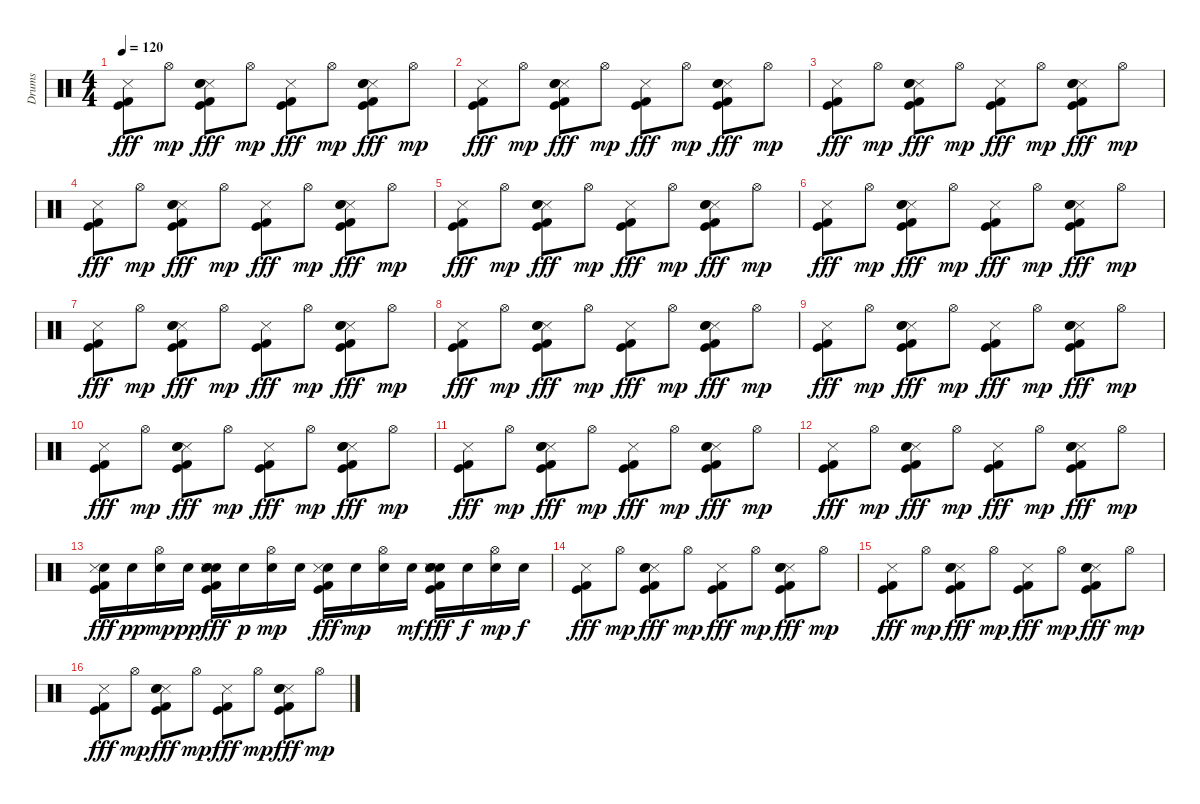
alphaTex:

\track ("Drums" "Drums") {instrument percussion}
\staff {score}
\articulation defaults
\ts (4 4)
\tempo 120
\clef neutral
\ks c
("Metronome (hit)" "Kick (hit)" "Kick (hit) 2").8{dy fff} "Hi-Hat (open)".8{dy mp} ("Metronome (hit)" "Kick (hit)" "Kick (hit) 2" "Snare (hit) 2" "Electric Snare (hit)").8{dy fff} "Hi-Hat (open)".8{dy mp} ("Metronome (hit)" "Kick (hit)" "Kick (hit) 2").8{dy fff} "Hi-Hat (open)".8{dy mp} ("Metronome (hit)" "Kick (hit)" "Kick (hit) 2" "Snare (hit) 2" "Electric Snare (hit)").8{dy fff} "Hi-Hat (open)".8{dy mp} |
("Metronome (hit)" "Kick (hit)" "Kick (hit) 2").8{dy fff} "Hi-Hat (open)".8{dy mp} ("Metronome (hit)" "Kick (hit)" "Kick (hit) 2" "Snare (hit) 2" "Electric Snare (hit)").8{dy fff} "Hi-Hat (open)".8{dy mp} ("Metronome (hit)" "Kick (hit)" "Kick (hit) 2").8{dy fff} "Hi-Hat (open)".8{dy mp} ("Metronome (hit)" "Kick (hit)" "Kick (hit) 2" "Snare (hit) 2" "Electric Snare (hit)").8{dy fff} "Hi-Hat (open)".8{dy mp} |
("Metronome (hit)" "Kick (hit)" "Kick (hit) 2").8{dy fff} "Hi-Hat (open)".8{dy mp} ("Metronome (hit)" "Kick (hit)" "Kick (hit) 2" "Snare (hit) 2" "Electric Snare (hit)").8{dy fff} "Hi-Hat (open)".8{dy mp} ("Metronome (hit)" "Kick (hit)" "Kick (hit) 2").8{dy fff} "Hi-Hat (open)".8{dy mp} ("Metronome (hit)" "Kick (hit)" "Kick (hit) 2" "Snare (hit) 2" "Electric Snare (hit)").8{dy fff} "Hi-Hat (open)".8{dy mp} |
("Metronome (hit)" "Kick (hit)" "Kick (hit) 2").8{dy fff} "Hi-Hat (open)".8{dy mp} ("Metronome (hit)" "Kick (hit)" "Kick (hit) 2" "Snare (hit) 2" "Electric Snare (hit)").8{dy fff} "Hi-Hat (open)".8{dy mp} ("Metronome (hit)" "Kick (hit)" "Kick (hit) 2").8{dy fff} "Hi-Hat (open)".8{dy mp} ("Metronome (hit)" "Kick (hit)" "Kick (hit) 2" "Snare (hit) 2" "Electric Snare (hit)").8{dy fff} "Hi-Hat (open)".8{dy mp} |
("Metronome (hit)" "Kick (hit)" "Kick (hit) 2").8{dy fff} "Hi-Hat (open)".8{dy mp} ("Metronome (hit)" "Kick (hit)" "Kick (hit) 2" "Snare (hit) 2" "Electric Snare (hit)").8{dy fff} "Hi-Hat (open)".8{dy mp} ("Metronome (hit)" "Kick (hit)" "Kick (hit) 2").8{dy fff} "Hi-Hat (open)".8{dy mp} ("Metronome (hit)" "Kick (hit)" "Kick (hit) 2" "Snare (hit) 2" "Electric Snare (hit)").8{dy fff} "Hi-Hat (open)".8{dy mp} |
("Metronome (hit)" "Kick (hit)" "Kick (hit) 2").8{dy fff} "Hi-Hat (open)".8{dy mp} ("Metronome (hit)" "Kick (hit)" "Kick (hit) 2" "Snare (hit) 2" "Electric Snare (hit)").8{dy fff} "Hi-Hat (open)".8{dy mp} ("Metronome (hit)" "Kick (hit)" "Kick (hit) 2").8{dy fff} "Hi-Hat (open)".8{dy mp} ("Metronome (hit)" "Kick (hit)" "Kick (hit) 2" "Snare (hit) 2" "Electric Snare (hit)").8{dy fff} "Hi-Hat (open)".8{dy mp} |
("Metronome (hit)" "Kick (hit)" "Kick (hit) 2").8{dy fff} "Hi-Hat (open)".8{dy mp} ("Metronome (hit)" "Kick (hit)" "Kick (hit) 2" "Snare (hit) 2" "Electric Snare (hit)").8{dy fff} "Hi-Hat (open)".8{dy mp} ("Metronome (hit)" "Kick (hit)" "Kick (hit) 2").8{dy fff} "Hi-Hat (open)".8{dy mp} ("Metronome (hit)" "Kick (hit)" "Kick (hit) 2" "Snare (hit) 2" "Electric Snare (hit)").8{dy fff} "Hi-Hat (open)".8{dy mp} |
("Metronome (hit)" "Kick (hit)" "Kick (hit) 2").8{dy fff} "Hi-Hat (open)".8{dy mp} ("Metronome (hit)" "Kick (hit)" "Kick (hit) 2" "Snare (hit) 2" "Electric Snare (hit)").8{dy fff} "Hi-Hat (open)".8{dy mp} ("Metronome (hit)" "Kick (hit)" "Kick (hit) 2").8{dy fff} "Hi-Hat (open)".8{dy mp} ("Metronome (hit)" "Kick (hit)" "Kick (hit) 2" "Snare (hit) 2" "Electric Snare (hit)").8{dy fff} "Hi-Hat (open)".8{dy mp} |
("Metronome (hit)" "Kick (hit)" "Kick (hit) 2").8{dy fff} "Hi-Hat (open)".8{dy mp} ("Metronome (hit)" "Kick (hit)" "Kick (hit) 2" "Snare (hit)" "Snare (hit)").8{dy fff} "Hi-Hat (open)".8{dy mp} ("Metronome (hit)" "Kick (hit)" "Kick (hit) 2").8{dy fff} "Hi-Hat (open)".8{dy mp} ("Metronome (hit)" "Kick (hit)" "Kick (hit) 2" "Snare (hit) 2" "Electric Snare (hit)").8{dy fff} "Hi-Hat (open)".8{dy mp} |
("Metronome (hit)" "Kick (hit)" "Kick (hit) 2").8{dy fff} "Hi-Hat (open)".8{dy mp} ("Metronome (hit)" "Kick (hit)" "Kick (hit) 2" "Snare (hit) 2" "Electric Snare (hit)").8{dy fff} "Hi-Hat (open)".8{dy mp} ("Metronome (hit)" "Kick (hit)" "Kick (hit) 2").8{dy fff} "Hi-Hat (open)".8{dy mp} ("Metronome (hit)" "Kick (hit)" "Kick (hit) 2" "Snare (hit) 2" "Electric Snare (hit)").8{dy fff} "Hi-Hat (open)".8{dy mp} |
("Metronome (hit)" "Kick (hit)" "Kick (hit) 2").8{dy fff} "Hi-Hat (open)".8{dy mp} ("Metronome (hit)" "Kick (hit)" "Kick (hit) 2" "Snare (hit) 2" "Electric Snare (hit)").8{dy fff} "Hi-Hat (open)".8{dy mp} ("Metronome (hit)" "Kick (hit)" "Kick (hit) 2").8{dy fff} "Hi-Hat (open)".8{dy mp} ("Metronome (hit)" "Kick (hit)" "Kick (hit) 2" "Snare (hit) 2" "Electric Snare (hit)").8{dy fff} "Hi-Hat (open)".8{dy mp} |
("Metronome (hit)" "Kick (hit)" "Kick (hit) 2").8{dy fff} "Hi-Hat (open)".8{dy mp} ("Metronome (hit)" "Kick (hit)" "Kick (hit) 2" "Snare (hit) 2" "Electric Snare (hit)").8{dy fff} "Hi-Hat (open)".8{dy mp} ("Metronome (hit)" "Kick (hit)" "Kick (hit) 2").8{dy fff} "Hi-Hat (open)".8{dy mp} ("Metronome (hit)" "Kick (hit)" "Kick (hit) 2" "Snare (hit) 2" "Electric Snare (hit)").8{dy fff} "Hi-Hat (open)".8{dy mp} |
("Snare (hit)" "Metronome (hit)" "Kick (hit)" "Kick (hit) 2").16{dy fff} "Snare (hit)".16{dy pp} ("Snare (hit)" "Hi-Hat (open)").16{dy mp} "Snare (hit)".16{dy pp} ("Snare (hit)" "Metronome (hit)" "Kick (hit)" "Kick (hit) 2" "Snare (hit) 2" "Electric Snare (hit)").16{dy fff} "Snare (hit)".16{dy p} ("Snare (hit)" "Hi-Hat (open)").16{dy mp} "Snare (hit)".16 ("Snare (hit)" "Metronome (hit)" "Kick (hit)" "Kick (hit) 2").16{dy fff} "Snare (hit)".16{dy mp} ("Snare (hit)" "Hi-Hat (open)").16 "Snare (hit)".16{dy mf} ("Snare (hit)" "Metronome (hit)" "Kick (hit)" "Kick (hit) 2" "Snare (hit) 2" "Electric Snare (hit)").16{dy fff} "Snare (hit)".16{dy f} ("Snare (hit)" "Hi-Hat (open)").16{dy mp} "Snare (hit)".16{dy f} |
("Metronome (hit)" "Kick (hit)" "Kick (hit) 2").8{dy fff} "Hi-Hat (open)".8{dy mp} ("Metronome (hit)" "Kick (hit)" "Kick (hit) 2" "Snare (hit) 2" "Electric Snare (hit)").8{dy fff} "Hi-Hat (open)".8{dy mp} ("Metronome (hit)" "Kick (hit)" "Kick (hit) 2").8{dy fff} "Hi-Hat (open)".8{dy mp} ("Metronome (hit)" "Kick (hit)" "Kick (hit) 2" "Snare (hit) 2" "Electric Snare (hit)").8{dy fff} "Hi-Hat (open)".8{dy mp} |
("Metronome (hit)" "Kick (hit)" "Kick (hit) 2").8{dy fff} "Hi-Hat (open)".8{dy mp} ("Metronome (hit)" "Kick (hit)" "Kick (hit) 2" "Snare (hit) 2" "Electric Snare (hit)").8{dy fff} "Hi-Hat (open)".8{dy mp} ("Metronome (hit)" "Kick (hit)" "Kick (hit) 2").8{dy fff} "Hi-Hat (open)".8{dy mp} ("Metronome (hit)" "Kick (hit)" "Kick (hit) 2" "Snare (hit) 2" "Electric Snare (hit)").8{dy fff} "Hi-Hat (open)".8{dy mp} |
("Metronome (hit)" "Kick (hit)" "Kick (hit) 2").8{dy fff} "Hi-Hat (open)".8{dy mp} ("Metronome (hit)" "Kick (hit)" "Kick (hit) 2" "Snare (hit) 2" "Electric Snare (hit)").8{dy fff} "Hi-Hat (open)".8{dy mp} ("Metronome (hit)" "Kick (hit)" "Kick (hit) 2").8{dy fff} "Hi-Hat (open)".8{dy mp} ("Metronome (hit)" "Kick (hit)" "Kick (hit) 2" "Snare (hit) 2" "Electric Snare (hit)").8{dy fff} "Hi-Hat (open)".8{dy mp}
